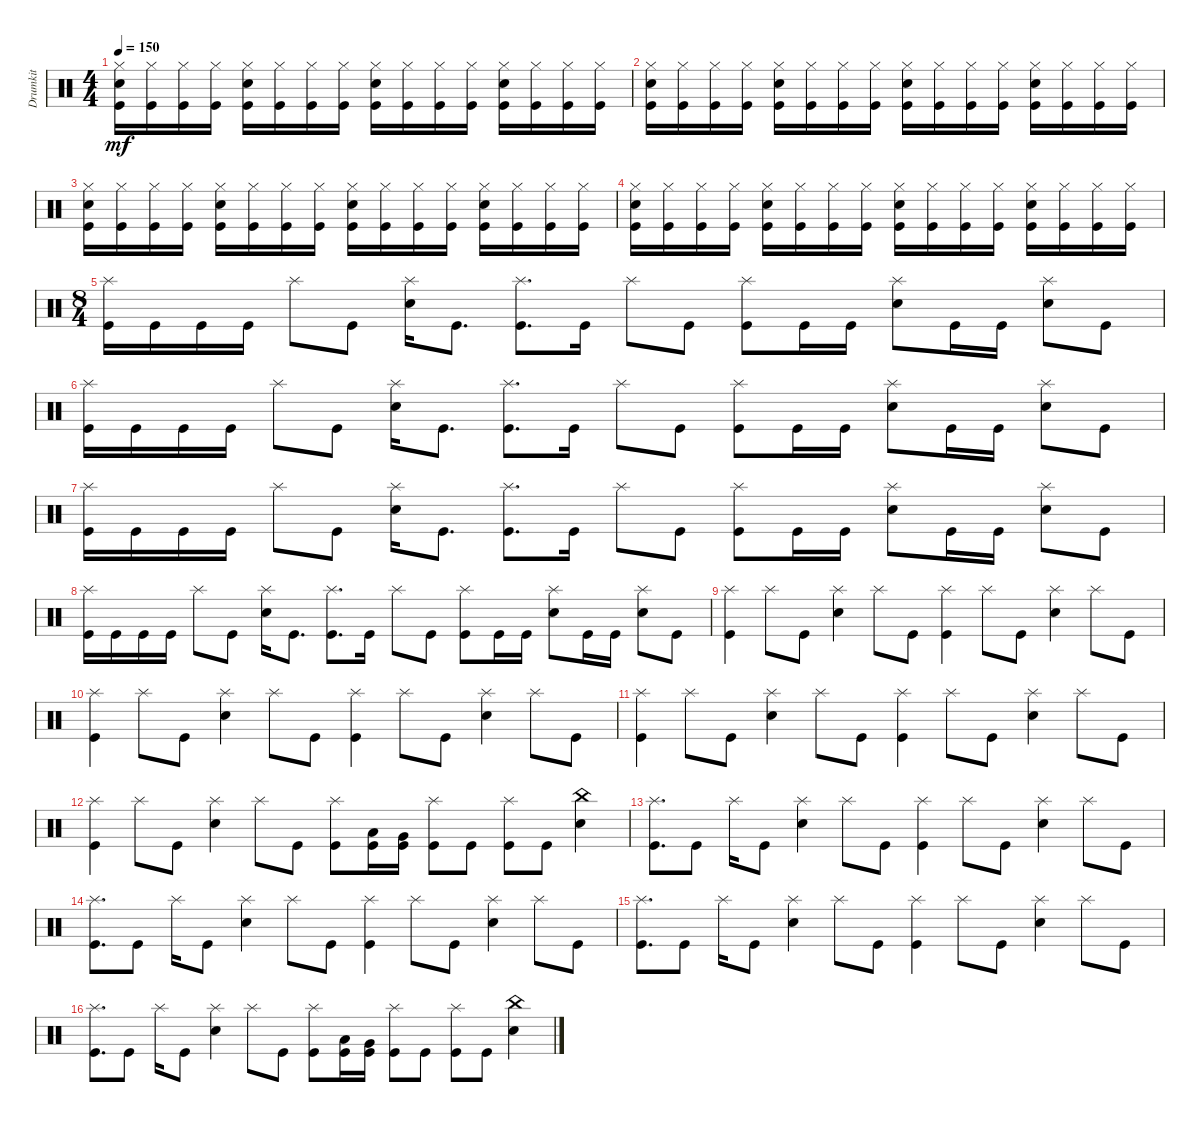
\track ("Drumkit" "Drumkit") {instrument percussion}
\staff {score}
\articulation defaults
\ts (4 4)
\tempo 150
\clef neutral
\ks c
("Kick (hit)" "Snare (hit) 2" "Hi-Hat (closed)").16{dy mf} ("Kick (hit)" "Hi-Hat (closed)").16 ("Kick (hit)" "Hi-Hat (closed)").16 ("Kick (hit)" "Hi-Hat (closed)").16 ("Kick (hit)" "Snare (hit) 2" "Hi-Hat (closed)").16 ("Kick (hit)" "Hi-Hat (closed)").16 ("Kick (hit)" "Hi-Hat (closed)").16 ("Kick (hit)" "Hi-Hat (closed)").16 ("Kick (hit)" "Snare (hit) 2" "Hi-Hat (closed)").16 ("Kick (hit)" "Hi-Hat (closed)").16 ("Kick (hit)" "Hi-Hat (closed)").16 ("Kick (hit)" "Hi-Hat (closed)").16 ("Kick (hit)" "Snare (hit) 2" "Hi-Hat (closed)").16 ("Kick (hit)" "Hi-Hat (closed)").16 ("Kick (hit)" "Hi-Hat (closed)").16 ("Kick (hit)" "Hi-Hat (closed)").16 |
("Kick (hit)" "Snare (hit) 2" "Hi-Hat (closed)").16 ("Kick (hit)" "Hi-Hat (closed)").16 ("Kick (hit)" "Hi-Hat (closed)").16 ("Kick (hit)" "Hi-Hat (closed)").16 ("Kick (hit)" "Snare (hit) 2" "Hi-Hat (closed)").16 ("Kick (hit)" "Hi-Hat (closed)").16 ("Kick (hit)" "Hi-Hat (closed)").16 ("Kick (hit)" "Hi-Hat (closed)").16 ("Kick (hit)" "Snare (hit) 2" "Hi-Hat (closed)").16 ("Kick (hit)" "Hi-Hat (closed)").16 ("Kick (hit)" "Hi-Hat (closed)").16 ("Kick (hit)" "Hi-Hat (closed)").16 ("Kick (hit)" "Snare (hit) 2" "Hi-Hat (closed)").16 ("Kick (hit)" "Hi-Hat (closed)").16 ("Kick (hit)" "Hi-Hat (closed)").16 ("Kick (hit)" "Hi-Hat (closed)").16 |
("Kick (hit)" "Snare (hit) 2" "Hi-Hat (closed)").16 ("Kick (hit)" "Hi-Hat (closed)").16 ("Kick (hit)" "Hi-Hat (closed)").16 ("Kick (hit)" "Hi-Hat (closed)").16 ("Kick (hit)" "Snare (hit) 2" "Hi-Hat (closed)").16 ("Kick (hit)" "Hi-Hat (closed)").16 ("Kick (hit)" "Hi-Hat (closed)").16 ("Kick (hit)" "Hi-Hat (closed)").16 ("Kick (hit)" "Snare (hit) 2" "Hi-Hat (closed)").16 ("Kick (hit)" "Hi-Hat (closed)").16 ("Kick (hit)" "Hi-Hat (closed)").16 ("Kick (hit)" "Hi-Hat (closed)").16 ("Kick (hit)" "Snare (hit) 2" "Hi-Hat (closed)").16 ("Kick (hit)" "Hi-Hat (closed)").16 ("Kick (hit)" "Hi-Hat (closed)").16 ("Kick (hit)" "Hi-Hat (closed)").16 |
("Kick (hit)" "Snare (hit) 2" "Hi-Hat (closed)").16 ("Kick (hit)" "Hi-Hat (closed)").16 ("Kick (hit)" "Hi-Hat (closed)").16 ("Kick (hit)" "Hi-Hat (closed)").16 ("Kick (hit)" "Snare (hit) 2" "Hi-Hat (closed)").16 ("Kick (hit)" "Hi-Hat (closed)").16 ("Kick (hit)" "Hi-Hat (closed)").16 ("Kick (hit)" "Hi-Hat (closed)").16 ("Kick (hit)" "Snare (hit) 2" "Hi-Hat (closed)").16 ("Kick (hit)" "Hi-Hat (closed)").16 ("Kick (hit)" "Hi-Hat (closed)").16 ("Kick (hit)" "Hi-Hat (closed)").16 ("Kick (hit)" "Snare (hit) 2" "Hi-Hat (closed)").16 ("Kick (hit)" "Hi-Hat (closed)").16 ("Kick (hit)" "Hi-Hat (closed)").16 ("Kick (hit)" "Hi-Hat (closed)").16 |
\ts (8 4)
("Kick (hit)" "Splash (hit)").16 "Kick (hit)".16 "Kick (hit)".16 "Kick (hit)".16 "Splash (hit)".8 "Kick (hit)".8 ("Snare (hit) 2" "Splash (hit)").16 "Kick (hit)".8{d} ("Kick (hit)" "Splash (hit)").8{d} "Kick (hit)".16 "Splash (hit)".8 "Kick (hit)".8 ("Kick (hit)" "Splash (hit)").8 "Kick (hit)".16 "Kick (hit)".16 ("Snare (hit) 2" "Splash (hit)").8 "Kick (hit)".16 "Kick (hit)".16 ("Snare (hit) 2" "Splash (hit)").8 "Kick (hit)".8 |
("Kick (hit)" "Splash (hit)").16 "Kick (hit)".16 "Kick (hit)".16 "Kick (hit)".16 "Splash (hit)".8 "Kick (hit)".8 ("Snare (hit) 2" "Splash (hit)").16 "Kick (hit)".8{d} ("Kick (hit)" "Splash (hit)").8{d} "Kick (hit)".16 "Splash (hit)".8 "Kick (hit)".8 ("Kick (hit)" "Splash (hit)").8 "Kick (hit)".16 "Kick (hit)".16 ("Snare (hit) 2" "Splash (hit)").8 "Kick (hit)".16 "Kick (hit)".16 ("Snare (hit) 2" "Splash (hit)").8 "Kick (hit)".8 |
("Kick (hit)" "Splash (hit)").16 "Kick (hit)".16 "Kick (hit)".16 "Kick (hit)".16 "Splash (hit)".8 "Kick (hit)".8 ("Snare (hit) 2" "Splash (hit)").16 "Kick (hit)".8{d} ("Kick (hit)" "Splash (hit)").8{d} "Kick (hit)".16 "Splash (hit)".8 "Kick (hit)".8 ("Kick (hit)" "Splash (hit)").8 "Kick (hit)".16 "Kick (hit)".16 ("Snare (hit) 2" "Splash (hit)").8 "Kick (hit)".16 "Kick (hit)".16 ("Snare (hit) 2" "Splash (hit)").8 "Kick (hit)".8 |
("Kick (hit)" "Splash (hit)").16 "Kick (hit)".16 "Kick (hit)".16 "Kick (hit)".16 "Splash (hit)".8 "Kick (hit)".8 ("Snare (hit) 2" "Splash (hit)").16 "Kick (hit)".8{d} ("Kick (hit)" "Splash (hit)").8{d} "Kick (hit)".16 "Splash (hit)".8 "Kick (hit)".8 ("Kick (hit)" "Splash (hit)").8 "Kick (hit)".16 "Kick (hit)".16 ("Snare (hit) 2" "Splash (hit)").8 "Kick (hit)".16 "Kick (hit)".16 ("Snare (hit) 2" "Splash (hit)").8 "Kick (hit)".8 |
("Splash (hit)" "Kick (hit)").4 "Splash (hit)".8 "Kick (hit)".8 ("Snare (hit) 2" "Splash (hit)").4 "Splash (hit)".8 "Kick (hit)".8 ("Splash (hit)" "Kick (hit)").4 "Splash (hit)".8 "Kick (hit)".8 ("Splash (hit)" "Snare (hit) 2").4 "Splash (hit)".8 "Kick (hit)".8 |
("Splash (hit)" "Kick (hit)").4 "Splash (hit)".8 "Kick (hit)".8 ("Snare (hit) 2" "Splash (hit)").4 "Splash (hit)".8 "Kick (hit)".8 ("Splash (hit)" "Kick (hit)").4 "Splash (hit)".8 "Kick (hit)".8 ("Splash (hit)" "Snare (hit) 2").4 "Splash (hit)".8 "Kick (hit)".8 |
("Splash (hit)" "Kick (hit)").4 "Splash (hit)".8 "Kick (hit)".8 ("Snare (hit) 2" "Splash (hit)").4 "Splash (hit)".8 "Kick (hit)".8 ("Splash (hit)" "Kick (hit)").4 "Splash (hit)".8 "Kick (hit)".8 ("Splash (hit)" "Snare (hit) 2").4 "Splash (hit)".8 "Kick (hit)".8 |
("Splash (hit)" "Kick (hit)").4 "Splash (hit)".8 "Kick (hit)".8 ("Snare (hit) 2" "Splash (hit)").4 "Splash (hit)".8 "Kick (hit)".8 ("Splash (hit)" "Kick (hit)").8 ("Kick (hit)" "Low Tom (hit)").16 ("Kick (hit)" "Very Low Tom (hit)").16 ("Kick (hit)" "Splash (hit)").8 "Kick (hit)".8 ("Kick (hit)" "Splash (hit)").8 "Kick (hit)".8 ("Snare (hit) 2" "China (hit)").4 |
("Splash (hit)" "Kick (hit)").8{d} "Kick (hit)".8 "Splash (hit)".16 "Kick (hit)".8 ("Snare (hit) 2" "Splash (hit)").4 "Splash (hit)".8 "Kick (hit)".8 ("Splash (hit)" "Kick (hit)").4 "Splash (hit)".8 "Kick (hit)".8 ("Splash (hit)" "Snare (hit) 2").4 "Splash (hit)".8 "Kick (hit)".8 |
("Splash (hit)" "Kick (hit)").8{d} "Kick (hit)".8 "Splash (hit)".16 "Kick (hit)".8 ("Snare (hit) 2" "Splash (hit)").4 "Splash (hit)".8 "Kick (hit)".8 ("Splash (hit)" "Kick (hit)").4 "Splash (hit)".8 "Kick (hit)".8 ("Splash (hit)" "Snare (hit) 2").4 "Splash (hit)".8 "Kick (hit)".8 |
("Splash (hit)" "Kick (hit)").8{d} "Kick (hit)".8 "Splash (hit)".16 "Kick (hit)".8 ("Snare (hit) 2" "Splash (hit)").4 "Splash (hit)".8 "Kick (hit)".8 ("Splash (hit)" "Kick (hit)").4 "Splash (hit)".8 "Kick (hit)".8 ("Splash (hit)" "Snare (hit) 2").4 "Splash (hit)".8 "Kick (hit)".8 |
("Splash (hit)" "Kick (hit)").8{d} "Kick (hit)".8 "Splash (hit)".16 "Kick (hit)".8 ("Snare (hit) 2" "Splash (hit)").4 "Splash (hit)".8 "Kick (hit)".8 ("Splash (hit)" "Kick (hit)").8 ("Kick (hit)" "Low Tom (hit)").16 ("Kick (hit)" "Very Low Tom (hit)").16 ("Kick (hit)" "Splash (hit)").8 "Kick (hit)".8 ("Kick (hit)" "Splash (hit)").8 "Kick (hit)".8 ("Snare (hit) 2" "China (hit)").4
